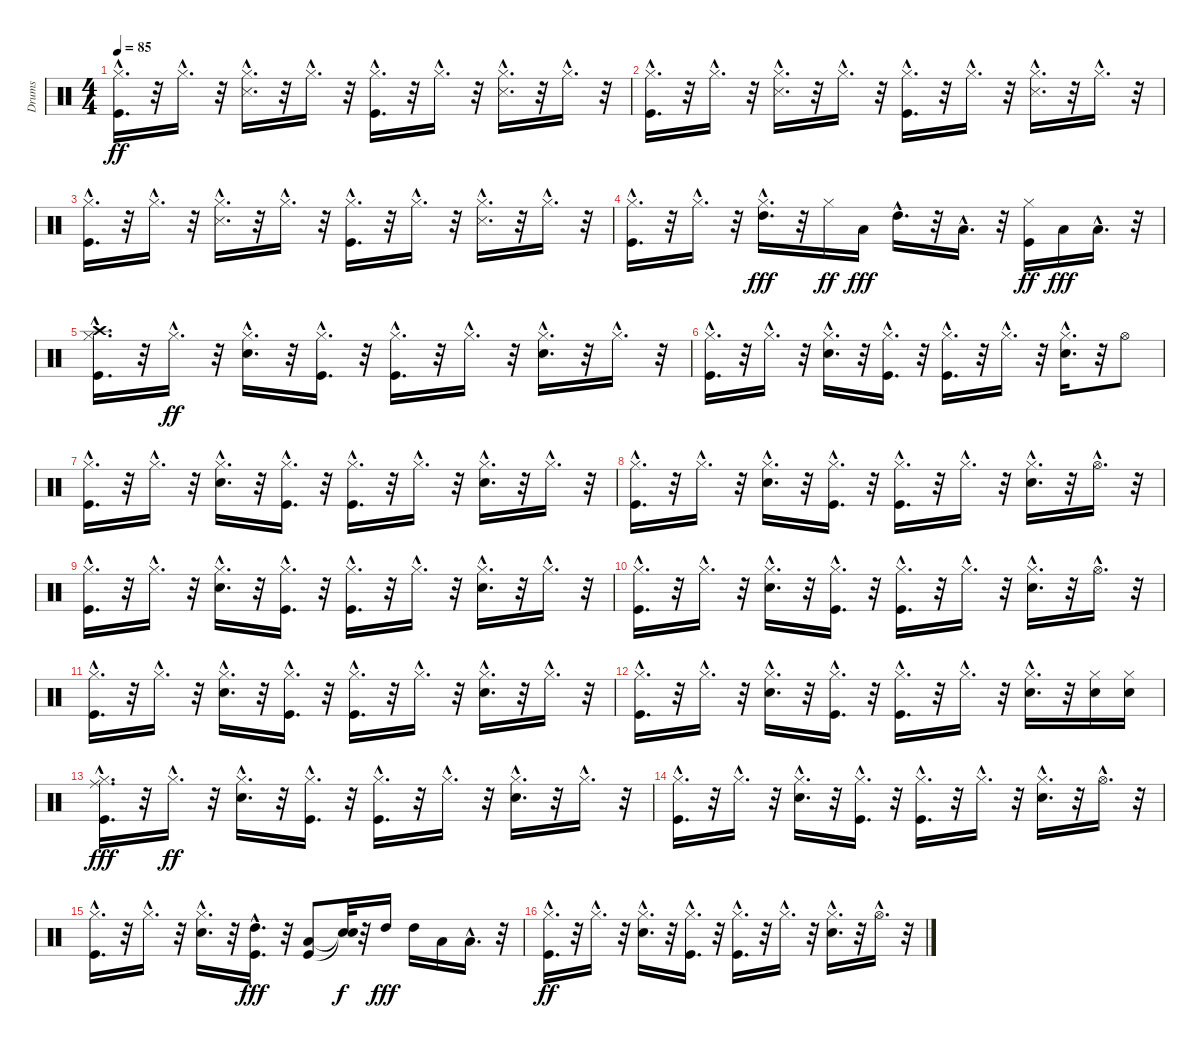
\track ("Drums" "Drums") {instrument percussion}
\staff {score}
\articulation defaults
\ts (4 4)
\tempo 85
\clef neutral
\ks c
("Hi-Hat (closed)"{hac} "Kick (hit)"{hac}).16{d dy ff} r.32 "Hi-Hat (closed)"{hac}.16{d} r.32 ("Hi-Hat (closed)"{hac} "Snare (side stick) 3"{hac}).16{d} r.32 "Hi-Hat (closed)"{hac}.16{d} r.32 ("Hi-Hat (closed)"{hac} "Kick (hit)"{hac}).16{d} r.32 "Hi-Hat (closed)"{hac}.16{d} r.32 ("Hi-Hat (closed)"{hac} "Snare (side stick) 3"{hac}).16{d} r.32 "Hi-Hat (closed)"{hac}.16{d} r.32 |
("Hi-Hat (closed)"{hac} "Kick (hit)"{hac}).16{d} r.32 "Hi-Hat (closed)"{hac}.16{d} r.32 ("Hi-Hat (closed)"{hac} "Snare (side stick) 3"{hac}).16{d} r.32 "Hi-Hat (closed)"{hac}.16{d} r.32 ("Hi-Hat (closed)"{hac} "Kick (hit)"{hac}).16{d} r.32 "Hi-Hat (closed)"{hac}.16{d} r.32 ("Hi-Hat (closed)"{hac} "Snare (side stick) 3"{hac}).16{d} r.32 "Hi-Hat (closed)"{hac}.16{d} r.32 |
("Hi-Hat (closed)"{hac} "Kick (hit)"{hac}).16{d} r.32 "Hi-Hat (closed)"{hac}.16{d} r.32 ("Hi-Hat (closed)"{hac} "Snare (side stick) 3"{hac}).16{d} r.32 "Hi-Hat (closed)"{hac}.16{d} r.32 ("Hi-Hat (closed)"{hac} "Kick (hit)"{hac}).16{d} r.32 "Hi-Hat (closed)"{hac}.16{d} r.32 ("Hi-Hat (closed)"{hac} "Snare (side stick) 3"{hac}).16{d} r.32 "Hi-Hat (closed)"{hac}.16{d} r.32 |
("Hi-Hat (closed)"{hac} "Kick (hit)"{hac}).16{d} r.32 "Hi-Hat (closed)"{hac}.16{d} r.32 ("Hi-Hat (closed)"{hac} "High Tom (hit)"{hac}).16{d dy fff} r.32 "Hi-Hat (closed)".16{dy ff} "Low Tom (hit)".16{dy fff} "High Tom (hit)"{hac}.16{d} r.32 "Low Tom (hit)"{hac}.16{d} r.32 ("Hi-Hat (closed)" "Kick (hit)").16{dy ff} "Low Tom (hit)".16{dy fff} "Low Floor Tom (hit)"{hac}.16{d} r.32 |
("Hi-Hat (closed)"{hac} "Kick (hit)"{hac} "Crash high (hit)"{hac}).16{d} r.32 "Hi-Hat (closed)"{hac}.16{d dy ff} r.32 ("Hi-Hat (closed)"{hac} "Snare (hit) 2"{hac}).16{d} r.32 ("Kick (hit)"{hac} "Hi-Hat (closed)"{hac}).16{d} r.32 ("Hi-Hat (closed)"{hac} "Kick (hit)"{hac}).16{d} r.32 "Hi-Hat (closed)"{hac}.16{d} r.32 ("Hi-Hat (closed)"{hac} "Snare (hit) 2"{hac}).16{d} r.32 "Hi-Hat (closed)"{hac}.16{d} r.32 |
("Kick (hit)"{hac} "Hi-Hat (closed)"{hac}).16{d} r.32 "Hi-Hat (closed)"{hac}.16{d} r.32 ("Snare (hit) 2"{hac} "Hi-Hat (closed)"{hac}).16{d} r.32 ("Kick (hit)"{hac} "Hi-Hat (closed)"{hac}).16{d} r.32 ("Kick (hit)"{hac} "Hi-Hat (closed)"{hac}).16{d} r.32 "Hi-Hat (closed)"{hac}.16{d} r.32 ("Snare (hit) 2"{hac} "Hi-Hat (closed)"{hac}).16{d} r.32 "Hi-Hat (open)".8 |
("Hi-Hat (closed)"{hac} "Kick (hit)"{hac}).16{d} r.32 "Hi-Hat (closed)"{hac}.16{d} r.32 ("Hi-Hat (closed)"{hac} "Snare (hit) 2"{hac}).16{d} r.32 ("Kick (hit)"{hac} "Hi-Hat (closed)"{hac}).16{d} r.32 ("Hi-Hat (closed)"{hac} "Kick (hit)"{hac}).16{d} r.32 "Hi-Hat (closed)"{hac}.16{d} r.32 ("Hi-Hat (closed)"{hac} "Snare (hit) 2"{hac}).16{d} r.32 "Hi-Hat (closed)"{hac}.16{d} r.32 |
("Hi-Hat (closed)"{hac} "Kick (hit)"{hac}).16{d} r.32 "Hi-Hat (closed)"{hac}.16{d} r.32 ("Hi-Hat (closed)"{hac} "Snare (hit) 2"{hac}).16{d} r.32 ("Kick (hit)"{hac} "Hi-Hat (closed)"{hac}).16{d} r.32 ("Hi-Hat (closed)"{hac} "Kick (hit)"{hac}).16{d} r.32 "Hi-Hat (closed)"{hac}.16{d} r.32 ("Hi-Hat (closed)"{hac} "Snare (hit) 2"{hac}).16{d} r.32 "Hi-Hat (open)"{hac}.16{d} r.32 |
("Hi-Hat (closed)"{hac} "Kick (hit)"{hac}).16{d} r.32 "Hi-Hat (closed)"{hac}.16{d} r.32 ("Hi-Hat (closed)"{hac} "Snare (hit) 2"{hac}).16{d} r.32 ("Kick (hit)"{hac} "Hi-Hat (closed)"{hac}).16{d} r.32 ("Hi-Hat (closed)"{hac} "Kick (hit)"{hac}).16{d} r.32 "Hi-Hat (closed)"{hac}.16{d} r.32 ("Hi-Hat (closed)"{hac} "Snare (hit) 2"{hac}).16{d} r.32 "Hi-Hat (closed)"{hac}.16{d} r.32 |
("Hi-Hat (closed)"{hac} "Kick (hit)"{hac}).16{d} r.32 "Hi-Hat (closed)"{hac}.16{d} r.32 ("Hi-Hat (closed)"{hac} "Snare (hit) 2"{hac}).16{d} r.32 ("Kick (hit)"{hac} "Hi-Hat (closed)"{hac}).16{d} r.32 ("Hi-Hat (closed)"{hac} "Kick (hit)"{hac}).16{d} r.32 "Hi-Hat (closed)"{hac}.16{d} r.32 ("Hi-Hat (closed)"{hac} "Snare (hit) 2"{hac}).16{d} r.32 "Hi-Hat (open)"{hac}.16{d} r.32 |
("Kick (hit)"{hac} "Hi-Hat (closed)"{hac}).16{d} r.32 "Hi-Hat (closed)"{hac}.16{d} r.32 ("Snare (hit) 2"{hac} "Hi-Hat (closed)"{hac}).16{d} r.32 ("Kick (hit)"{hac} "Hi-Hat (closed)"{hac}).16{d} r.32 ("Kick (hit)"{hac} "Hi-Hat (closed)"{hac}).16{d} r.32 "Hi-Hat (closed)"{hac}.16{d} r.32 ("Snare (hit) 2"{hac} "Hi-Hat (closed)"{hac}).16{d} r.32 "Hi-Hat (closed)"{hac}.16{d} r.32 |
("Kick (hit)"{hac} "Hi-Hat (closed)"{hac}).16{d} r.32 "Hi-Hat (closed)"{hac}.16{d} r.32 ("Snare (hit) 2"{hac} "Hi-Hat (closed)"{hac}).16{d} r.32 ("Kick (hit)"{hac} "Hi-Hat (closed)"{hac}).16{d} r.32 ("Kick (hit)"{hac} "Hi-Hat (closed)"{hac}).16{d} r.32 "Hi-Hat (closed)"{hac}.16{d} r.32 ("Snare (hit) 2"{hac} "Hi-Hat (closed)"{hac}).16{d} r.32 ("Snare (hit) 2" "Hi-Hat (closed)").16 ("Snare (hit) 2" "Hi-Hat (closed)").16 |
("Kick (hit)"{hac} "Hi-Hat (closed)"{hac} "Ride (middle)"{hac}).16{d dy fff} r.32 "Hi-Hat (closed)"{hac}.16{d dy ff} r.32 ("Snare (hit) 2"{hac} "Hi-Hat (closed)"{hac}).16{d} r.32 ("Kick (hit)"{hac} "Hi-Hat (closed)"{hac}).16{d} r.32 ("Kick (hit)"{hac} "Hi-Hat (closed)"{hac}).16{d} r.32 "Hi-Hat (closed)"{hac}.16{d} r.32 ("Snare (hit) 2"{hac} "Hi-Hat (closed)"{hac}).16{d} r.32 "Hi-Hat (closed)"{hac}.16{d} r.32 |
("Kick (hit)"{hac} "Hi-Hat (closed)"{hac}).16{d} r.32 "Hi-Hat (closed)"{hac}.16{d} r.32 ("Snare (hit) 2"{hac} "Hi-Hat (closed)"{hac}).16{d} r.32 ("Kick (hit)"{hac} "Hi-Hat (closed)"{hac}).16{d} r.32 ("Kick (hit)"{hac} "Hi-Hat (closed)"{hac}).16{d} r.32 "Hi-Hat (closed)"{hac}.16{d} r.32 ("Snare (hit) 2"{hac} "Hi-Hat (closed)"{hac}).16{d} r.32 "Hi-Hat (open)"{hac}.16{d} r.32 |
("Hi-Hat (closed)"{hac} "Kick (hit)"{hac}).16{d} r.32 "Hi-Hat (closed)"{hac}.16{d} r.32 ("Hi-Hat (closed)"{hac} "Snare (hit) 2"{hac}).16{d} r.32 ("Kick (hit)"{hac} "High Tom (hit)"{hac}).16{d dy fff} r.32 ("Kick (hit)" "Low Tom (hit)").8 ("Snare (hit)"{t} "Snare (hit)"{t}).32{dy f} r.32 "High Tom (hit)".16{dy fff} "High Tom (hit)".16 "Low Tom (hit)".16 "Low Tom (hit)"{hac}.16{d} r.32 |
("Hi-Hat (closed)"{hac} "Kick (hit)"{hac}).16{d dy ff} r.32 "Hi-Hat (closed)"{hac}.16{d} r.32 ("Hi-Hat (closed)"{hac} "Snare (hit) 2"{hac}).16{d} r.32 ("Kick (hit)"{hac} "Hi-Hat (closed)"{hac}).16{d} r.32 ("Hi-Hat (closed)"{hac} "Kick (hit)"{hac}).16{d} r.32 "Hi-Hat (closed)"{hac}.16{d} r.32 ("Hi-Hat (closed)"{hac} "Snare (hit) 2"{hac}).16{d} r.32 "Hi-Hat (open)"{hac}.16{d} r.32
